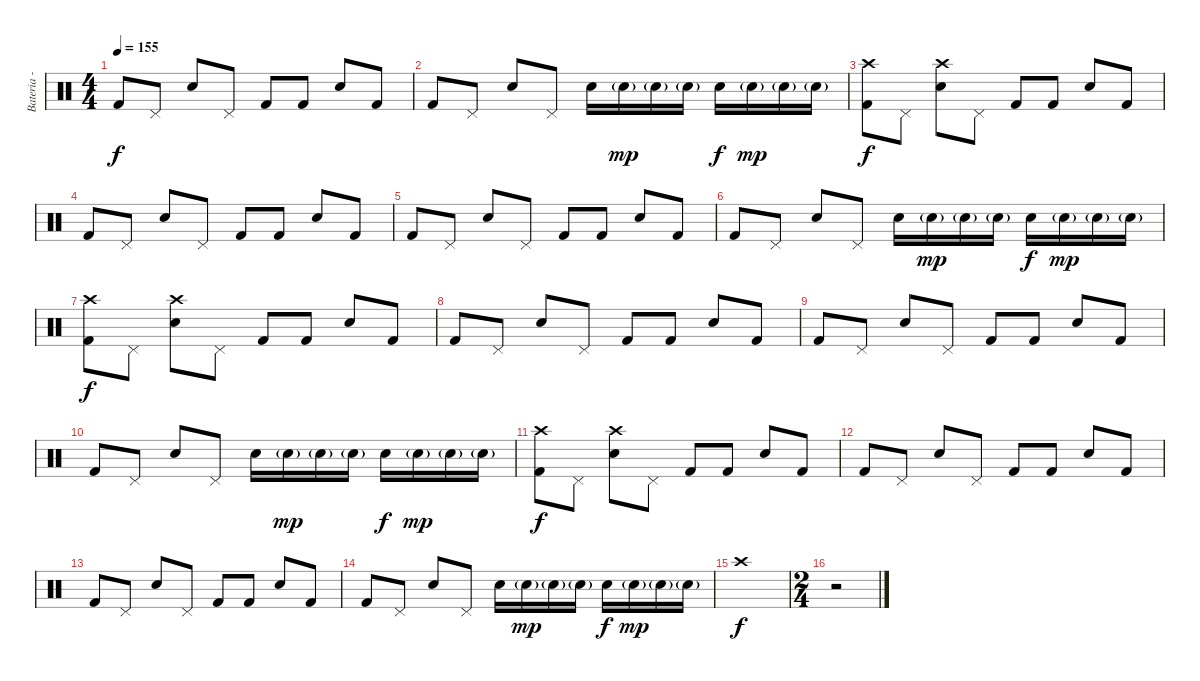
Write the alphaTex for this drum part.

\track ("Bateria - Larzon" "Bateria - ") {instrument percussion}
\staff {score}
\articulation defaults
\ts (4 4)
\tempo 155
\clef neutral
\ks c "Kick (hit) 2".8{dy f} "Pedal Hi-Hat (hit)".8 "Snare (hit) 2".8 "Pedal Hi-Hat (hit)".8 "Kick (hit) 2".8 "Kick (hit) 2".8 "Snare (hit) 2".8 "Kick (hit) 2".8
|
"Kick (hit) 2".8 "Pedal Hi-Hat (hit)".8 "Snare (hit) 2".8 "Pedal Hi-Hat (hit)".8 "Snare (hit) 2".16 "Snare (hit) 2"{g}.16{dy mp} "Snare (hit) 2"{g}.16 "Snare (hit) 2"{g}.16 "Snare (hit) 2".16{dy f} "Snare (hit) 2"{g}.16{dy mp} "Snare (hit) 2"{g}.16 "Snare (hit) 2"{g}.16 |
("Kick (hit) 2" "Crash high (hit)").8{dy f} "Pedal Hi-Hat (hit)".8 ("Snare (hit) 2" "Crash high (hit)").8 "Pedal Hi-Hat (hit)".8 "Kick (hit) 2".8 "Kick (hit) 2".8 "Snare (hit) 2".8 "Kick (hit) 2".8 |
"Kick (hit) 2".8 "Pedal Hi-Hat (hit)".8 "Snare (hit) 2".8 "Pedal Hi-Hat (hit)".8 "Kick (hit) 2".8 "Kick (hit) 2".8 "Snare (hit) 2".8 "Kick (hit) 2".8 |
"Kick (hit) 2".8 "Pedal Hi-Hat (hit)".8 "Snare (hit) 2".8 "Pedal Hi-Hat (hit)".8 "Kick (hit) 2".8 "Kick (hit) 2".8 "Snare (hit) 2".8 "Kick (hit) 2".8 |
"Kick (hit) 2".8 "Pedal Hi-Hat (hit)".8 "Snare (hit) 2".8 "Pedal Hi-Hat (hit)".8 "Snare (hit) 2".16 "Snare (hit) 2"{g}.16{dy mp} "Snare (hit) 2"{g}.16 "Snare (hit) 2"{g}.16 "Snare (hit) 2".16{dy f} "Snare (hit) 2"{g}.16{dy mp} "Snare (hit) 2"{g}.16 "Snare (hit) 2"{g}.16 |
("Kick (hit) 2" "Crash high (hit)").8{dy f} "Pedal Hi-Hat (hit)".8 ("Snare (hit) 2" "Crash high (hit)").8 "Pedal Hi-Hat (hit)".8 "Kick (hit) 2".8 "Kick (hit) 2".8 "Snare (hit) 2".8 "Kick (hit) 2".8 |
"Kick (hit) 2".8 "Pedal Hi-Hat (hit)".8 "Snare (hit) 2".8 "Pedal Hi-Hat (hit)".8 "Kick (hit) 2".8 "Kick (hit) 2".8 "Snare (hit) 2".8 "Kick (hit) 2".8 |
"Kick (hit) 2".8 "Pedal Hi-Hat (hit)".8 "Snare (hit) 2".8 "Pedal Hi-Hat (hit)".8 "Kick (hit) 2".8 "Kick (hit) 2".8 "Snare (hit) 2".8 "Kick (hit) 2".8 |
"Kick (hit) 2".8 "Pedal Hi-Hat (hit)".8 "Snare (hit) 2".8 "Pedal Hi-Hat (hit)".8 "Snare (hit) 2".16 "Snare (hit) 2"{g}.16{dy mp} "Snare (hit) 2"{g}.16 "Snare (hit) 2"{g}.16 "Snare (hit) 2".16{dy f} "Snare (hit) 2"{g}.16{dy mp} "Snare (hit) 2"{g}.16 "Snare (hit) 2"{g}.16 |
("Kick (hit) 2" "Crash high (hit)").8{dy f} "Pedal Hi-Hat (hit)".8 ("Snare (hit) 2" "Crash high (hit)").8 "Pedal Hi-Hat (hit)".8 "Kick (hit) 2".8 "Kick (hit) 2".8 "Snare (hit) 2".8 "Kick (hit) 2".8 |
"Kick (hit) 2".8 "Pedal Hi-Hat (hit)".8 "Snare (hit) 2".8 "Pedal Hi-Hat (hit)".8 "Kick (hit) 2".8 "Kick (hit) 2".8 "Snare (hit) 2".8 "Kick (hit) 2".8 |
"Kick (hit) 2".8 "Pedal Hi-Hat (hit)".8 "Snare (hit) 2".8 "Pedal Hi-Hat (hit)".8 "Kick (hit) 2".8 "Kick (hit) 2".8 "Snare (hit) 2".8 "Kick (hit) 2".8 |
"Kick (hit) 2".8 "Pedal Hi-Hat (hit)".8 "Snare (hit) 2".8 "Pedal Hi-Hat (hit)".8 "Snare (hit) 2".16 "Snare (hit) 2"{g}.16{dy mp} "Snare (hit) 2"{g}.16 "Snare (hit) 2"{g}.16 "Snare (hit) 2".16{dy f} "Snare (hit) 2"{g}.16{dy mp} "Snare (hit) 2"{g}.16 "Snare (hit) 2"{g}.16 |
"Crash high (hit)".1{dy f} |
\ts (2 4)
r.2
